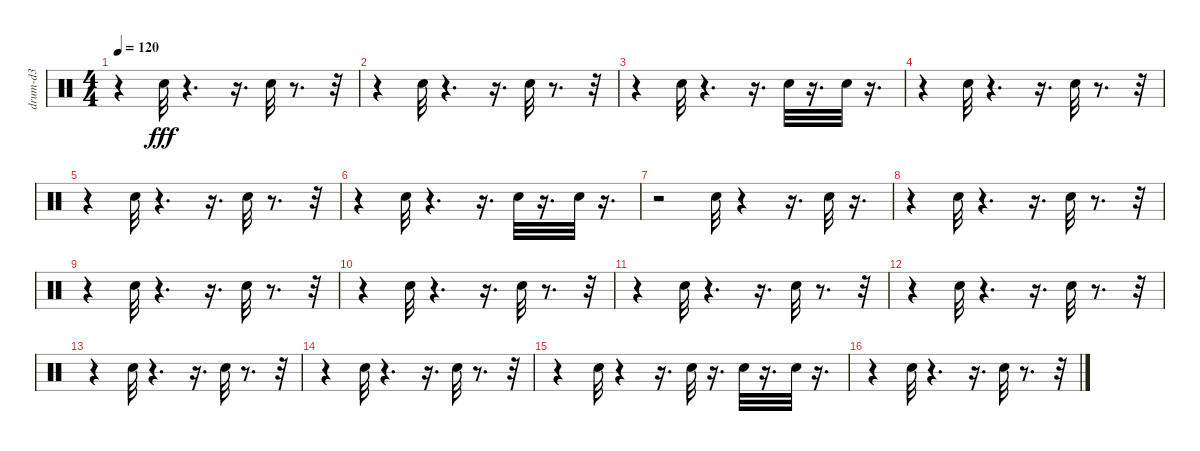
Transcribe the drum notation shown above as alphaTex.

\track ("drum-d3" "drum-d3") {instrument percussion}
\staff {score}
\articulation defaults
\ts (4 4)
\tempo 120
\clef neutral
\ks c
r.4{dy fff} "Snare (hit) 2".32 r.4{d} r.16{d} "Snare (hit) 2".32 r.8{d} r.32 |
r.4 "Snare (hit) 2".32 r.4{d} r.16{d} "Snare (hit) 2".32 r.8{d} r.32 |
r.4 "Snare (hit) 2".32 r.4{d} r.16{d} "Snare (hit) 2".32 r.16{d} "Snare (hit) 2".32 r.16{d} |
r.4 "Snare (hit) 2".32 r.4{d} r.16{d} "Snare (hit) 2".32 r.8{d} r.32 |
r.4 "Snare (hit) 2".32 r.4{d} r.16{d} "Snare (hit) 2".32 r.8{d} r.32 |
r.4 "Snare (hit) 2".32 r.4{d} r.16{d} "Snare (hit) 2".32 r.16{d} "Snare (hit) 2".32 r.16{d} |
r.2 "Snare (hit) 2".32 r.4 r.16{d} "Snare (hit) 2".32 r.16{d} |
r.4 "Snare (hit) 2".32 r.4{d} r.16{d} "Snare (hit) 2".32 r.8{d} r.32 |
r.4 "Snare (hit) 2".32 r.4{d} r.16{d} "Snare (hit) 2".32 r.8{d} r.32 |
r.4 "Snare (hit) 2".32 r.4{d} r.16{d} "Snare (hit) 2".32 r.8{d} r.32 |
r.4 "Snare (hit) 2".32 r.4{d} r.16{d} "Snare (hit) 2".32 r.8{d} r.32 |
r.4 "Snare (hit) 2".32 r.4{d} r.16{d} "Snare (hit) 2".32 r.8{d} r.32 |
r.4 "Snare (hit) 2".32 r.4{d} r.16{d} "Snare (hit) 2".32 r.8{d} r.32 |
r.4 "Snare (hit) 2".32 r.4{d} r.16{d} "Snare (hit) 2".32 r.8{d} r.32 |
r.4 "Snare (hit) 2".32 r.4 r.16{d} "Snare (hit) 2".32 r.16{d} "Snare (hit) 2".32 r.16{d} "Snare (hit) 2".32 r.16{d} |
r.4 "Snare (hit) 2".32 r.4{d} r.16{d} "Snare (hit) 2".32 r.8{d} r.32
